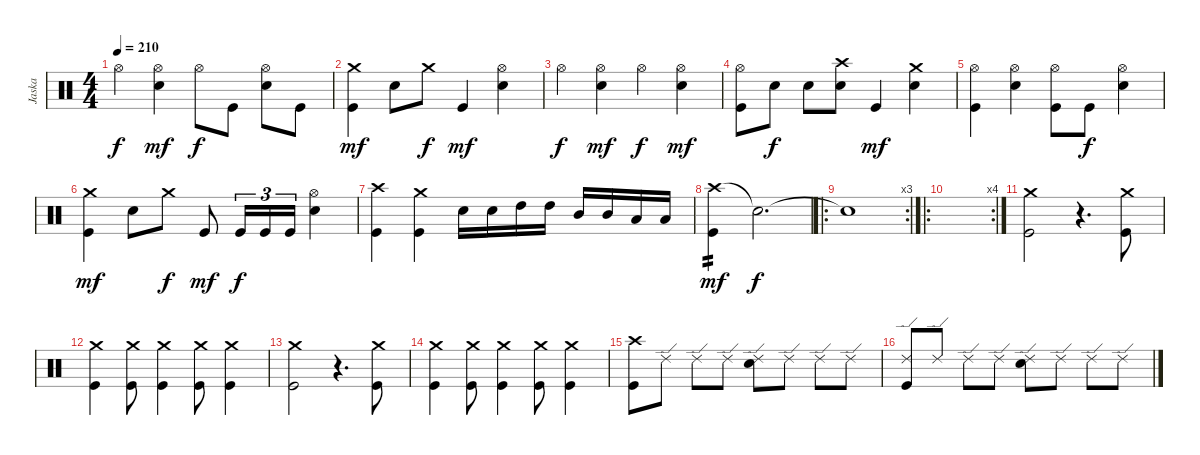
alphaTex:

\track ("Jaska" "Jaska") {instrument percussion}
\staff {score}
\articulation defaults
\ts (4 4)
\tempo 210
\clef neutral
\ks c "Hi-Hat (open)".4{dy f}
("Hi-Hat (open)" "Electric Snare (hit)").4{dy mf} "Hi-Hat (open)".8{dy f} "Kick (hit)".8 ("Hi-Hat (open)" "Electric Snare (hit)").8 "Kick (hit)".8 |
("Crash medium (hit)" "Kick (hit)").4{dy mf} "Electric Snare (hit)".8 "Crash medium (hit)".8{dy f} "Kick (hit)".4{dy mf} ("Hi-Hat (open)" "Electric Snare (hit)").4 |
"Hi-Hat (open)".4{dy f} ("Hi-Hat (open)" "Electric Snare (hit)").4{dy mf} "Hi-Hat (open)".4{dy f} ("Hi-Hat (open)" "Electric Snare (hit)").4{dy mf} |
("Hi-Hat (open)" "Kick (hit)").8 "Electric Snare (hit)".8{dy f} "Electric Snare (hit)".8 ("Crash high (hit)" "Electric Snare (hit)").8 "Kick (hit)".4{dy mf} ("Crash medium (hit)" "Electric Snare (hit)").4 |
("Hi-Hat (open)" "Kick (hit)").4 ("Hi-Hat (open)" "Electric Snare (hit)").4 ("Hi-Hat (open)" "Kick (hit)").8 "Kick (hit)".8{dy f} ("Hi-Hat (open)" "Electric Snare (hit)").4 |
("Crash medium (hit)" "Kick (hit)").4{dy mf} "Electric Snare (hit)".8 "Crash medium (hit)".8{dy f} "Kick (hit)".8{dy mf} "Kick (hit)".16{tu (3 2) dy f} "Kick (hit)".16{tu (3 2)} "Kick (hit)".16{tu (3 2)} ("Hi-Hat (open)" "Electric Snare (hit)").4 |
("Crash high (hit)" "Kick (hit)").4 ("Crash medium (hit)" "Kick (hit)").4 "Electric Snare (hit)".16 "Electric Snare (hit)".16 "High Tom (hit)".16 "High Tom (hit)".16 "Mid Tom (hit)".16 "Mid Tom (hit)".16 "Low Tom (hit)".16 "Low Tom (hit)".16 |
("Crash high (hit)" "Kick (hit)").4{tp 2 dy mf} "Snare (hit)"{t}.2{d dy f} |
\ro
\rc 3 "Snare (hit)"{t}.1
|
\ro
\rc 4
|
("Crash medium (hit)" "Kick (hit)").2 r.4{d} ("Crash medium (hit)" "Kick (hit)").8 |
("Crash medium (hit)" "Kick (hit)").4 ("Crash medium (hit)" "Kick (hit)").8 ("Crash medium (hit)" "Kick (hit)").4 ("Crash medium (hit)" "Kick (hit)").8 ("Crash medium (hit)" "Kick (hit)").4 |
("Crash medium (hit)" "Kick (hit)").2 r.4{d} ("Crash medium (hit)" "Kick (hit)").8 |
("Crash medium (hit)" "Kick (hit)").4 ("Crash medium (hit)" "Kick (hit)").8 ("Crash medium (hit)" "Kick (hit)").4 ("Crash medium (hit)" "Kick (hit)").8 ("Crash medium (hit)" "Kick (hit)").4 |
("Crash high (hit)" "Kick (hit)").8 "Ride (edge) 2".8 "Ride (edge) 2".8 "Ride (edge) 2".8 ("Ride (edge) 2" "Electric Snare (hit)").8 "Ride (edge) 2".8 "Ride (edge) 2".8 "Ride (edge) 2".8 |
("Ride (edge) 2" "Kick (hit)").8 "Ride (edge) 2".8 "Ride (edge) 2".8 "Ride (edge) 2".8 ("Ride (edge) 2" "Electric Snare (hit)").8 "Ride (edge) 2".8 "Ride (edge) 2".8 "Ride (edge) 2".8
